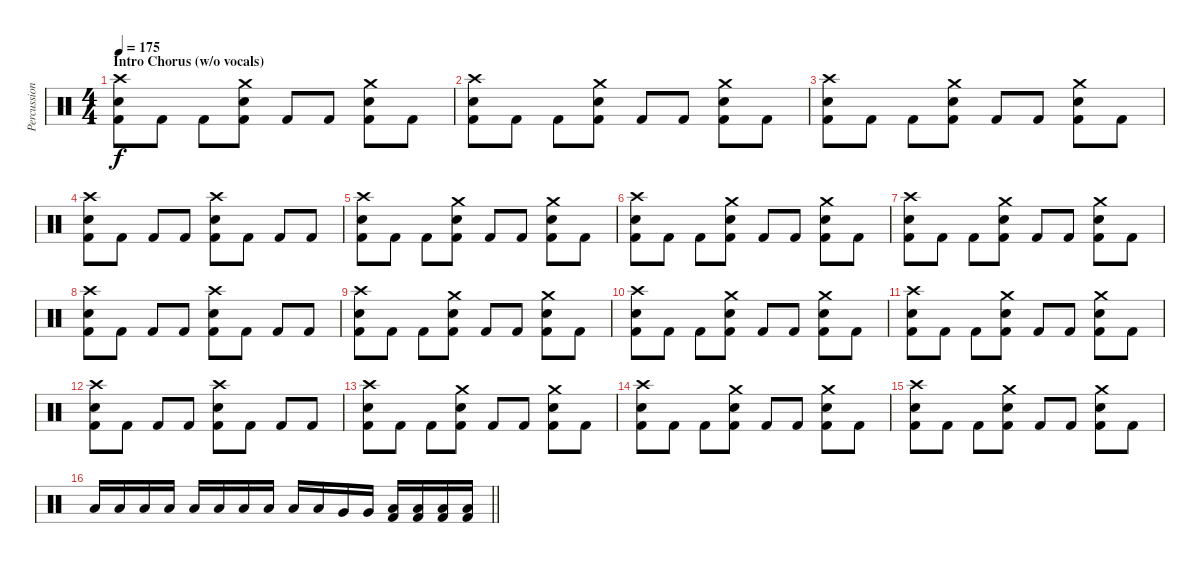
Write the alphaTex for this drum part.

\track ("Percussion" "Percussion") {instrument percussion}
\staff {score}
\articulation defaults
\ts (4 4)
\section ("" "Intro Chorus (w/o vocals)")
\tempo 175
\clef neutral
\ks c
("Crash high (hit)" "Snare (hit) 2" "Kick (hit) 2").8{dy f} "Kick (hit) 2".8 "Kick (hit) 2".8 ("Crash medium (hit)" "Snare (hit) 2" "Kick (hit) 2").8 "Kick (hit) 2".8 "Kick (hit) 2".8 ("Crash medium (hit)" "Snare (hit) 2" "Kick (hit) 2").8 "Kick (hit) 2".8 |
("Crash high (hit)" "Snare (hit) 2" "Kick (hit) 2").8 "Kick (hit) 2".8 "Kick (hit) 2".8 ("Crash medium (hit)" "Snare (hit) 2" "Kick (hit) 2").8 "Kick (hit) 2".8 "Kick (hit) 2".8 ("Crash medium (hit)" "Snare (hit) 2" "Kick (hit) 2").8 "Kick (hit) 2".8 |
("Crash high (hit)" "Snare (hit) 2" "Kick (hit) 2").8 "Kick (hit) 2".8 "Kick (hit) 2".8 ("Crash medium (hit)" "Snare (hit) 2" "Kick (hit) 2").8 "Kick (hit) 2".8 "Kick (hit) 2".8 ("Crash medium (hit)" "Snare (hit) 2" "Kick (hit) 2").8 "Kick (hit) 2".8 |
("Crash high (hit)" "Snare (hit) 2" "Kick (hit) 2").8 "Kick (hit) 2".8 "Kick (hit) 2".8 "Kick (hit) 2".8 ("Crash high (hit)" "Snare (hit) 2" "Kick (hit) 2").8 "Kick (hit) 2".8 "Kick (hit) 2".8 "Kick (hit) 2".8 |
("Crash high (hit)" "Snare (hit) 2" "Kick (hit) 2").8 "Kick (hit) 2".8 "Kick (hit) 2".8 ("Crash medium (hit)" "Snare (hit) 2" "Kick (hit) 2").8 "Kick (hit) 2".8 "Kick (hit) 2".8 ("Crash medium (hit)" "Snare (hit) 2" "Kick (hit) 2").8 "Kick (hit) 2".8 |
("Crash high (hit)" "Snare (hit) 2" "Kick (hit) 2").8 "Kick (hit) 2".8 "Kick (hit) 2".8 ("Crash medium (hit)" "Snare (hit) 2" "Kick (hit) 2").8 "Kick (hit) 2".8 "Kick (hit) 2".8 ("Crash medium (hit)" "Snare (hit) 2" "Kick (hit) 2").8 "Kick (hit) 2".8 |
("Crash high (hit)" "Snare (hit) 2" "Kick (hit) 2").8 "Kick (hit) 2".8 "Kick (hit) 2".8 ("Crash medium (hit)" "Snare (hit) 2" "Kick (hit) 2").8 "Kick (hit) 2".8 "Kick (hit) 2".8 ("Crash medium (hit)" "Snare (hit) 2" "Kick (hit) 2").8 "Kick (hit) 2".8 |
("Crash high (hit)" "Snare (hit) 2" "Kick (hit) 2").8 "Kick (hit) 2".8 "Kick (hit) 2".8 "Kick (hit) 2".8 ("Crash high (hit)" "Snare (hit) 2" "Kick (hit) 2").8 "Kick (hit) 2".8 "Kick (hit) 2".8 "Kick (hit) 2".8 |
("Crash high (hit)" "Snare (hit) 2" "Kick (hit) 2").8 "Kick (hit) 2".8 "Kick (hit) 2".8 ("Crash medium (hit)" "Snare (hit) 2" "Kick (hit) 2").8 "Kick (hit) 2".8 "Kick (hit) 2".8 ("Crash medium (hit)" "Snare (hit) 2" "Kick (hit) 2").8 "Kick (hit) 2".8 |
("Crash high (hit)" "Snare (hit) 2" "Kick (hit) 2").8 "Kick (hit) 2".8 "Kick (hit) 2".8 ("Crash medium (hit)" "Snare (hit) 2" "Kick (hit) 2").8 "Kick (hit) 2".8 "Kick (hit) 2".8 ("Crash medium (hit)" "Snare (hit) 2" "Kick (hit) 2").8 "Kick (hit) 2".8 |
("Crash high (hit)" "Snare (hit) 2" "Kick (hit) 2").8 "Kick (hit) 2".8 "Kick (hit) 2".8 ("Crash medium (hit)" "Snare (hit) 2" "Kick (hit) 2").8 "Kick (hit) 2".8 "Kick (hit) 2".8 ("Crash medium (hit)" "Snare (hit) 2" "Kick (hit) 2").8 "Kick (hit) 2".8 |
("Crash high (hit)" "Snare (hit) 2" "Kick (hit) 2").8 "Kick (hit) 2".8 "Kick (hit) 2".8 "Kick (hit) 2".8 ("Crash high (hit)" "Snare (hit) 2" "Kick (hit) 2").8 "Kick (hit) 2".8 "Kick (hit) 2".8 "Kick (hit) 2".8 |
("Crash high (hit)" "Snare (hit) 2" "Kick (hit) 2").8 "Kick (hit) 2".8 "Kick (hit) 2".8 ("Crash medium (hit)" "Snare (hit) 2" "Kick (hit) 2").8 "Kick (hit) 2".8 "Kick (hit) 2".8 ("Crash medium (hit)" "Snare (hit) 2" "Kick (hit) 2").8 "Kick (hit) 2".8 |
("Crash high (hit)" "Snare (hit) 2" "Kick (hit) 2").8 "Kick (hit) 2".8 "Kick (hit) 2".8 ("Crash medium (hit)" "Snare (hit) 2" "Kick (hit) 2").8 "Kick (hit) 2".8 "Kick (hit) 2".8 ("Crash medium (hit)" "Snare (hit) 2" "Kick (hit) 2").8 "Kick (hit) 2".8 |
("Crash high (hit)" "Snare (hit) 2" "Kick (hit) 2").8 "Kick (hit) 2".8 "Kick (hit) 2".8 ("Crash medium (hit)" "Snare (hit) 2" "Kick (hit) 2").8 "Kick (hit) 2".8 "Kick (hit) 2".8 ("Crash medium (hit)" "Snare (hit) 2" "Kick (hit) 2").8 "Kick (hit) 2".8 |
\barLineRight lightlight "Low Tom (hit)".16 "Low Tom (hit)".16 "Low Tom (hit)".16 "Low Tom (hit)".16 "Low Tom (hit)".16 "Low Tom (hit)".16 "Low Tom (hit)".16 "Low Tom (hit)".16 "Low Tom (hit)".16 "Low Tom (hit)".16 "Very Low Tom (hit)".16 "Very Low Tom (hit)".16
("Low Floor Tom (hit)" "Kick (hit) 2").16 ("Low Floor Tom (hit)" "Kick (hit) 2").16 ("Low Tom (hit)" "Kick (hit) 2").16 ("Low Tom (hit)" "Kick (hit) 2").16
